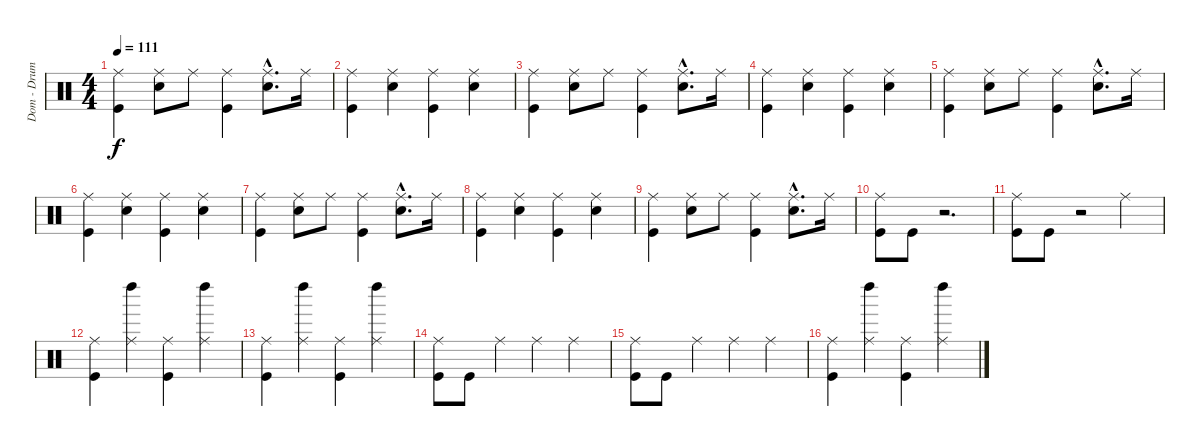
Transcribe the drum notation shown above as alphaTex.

\track ("Dom - Drums" "Dom - Drum") {instrument percussion}
\staff {score}
\articulation defaults
\ts (4 4)
\tempo 111
\clef neutral
\ks c
("Ride (middle)" "Kick (hit)").4{dy f} ("Ride (middle)" "Electric Snare (hit)").8 "Ride (middle)".8 ("Ride (middle)" "Kick (hit)").4 ("Ride (middle)"{hac} "Electric Snare (hit)"{hac}).8{d} "Ride (middle)".16 |
("Ride (middle)" "Kick (hit)").4 ("Ride (middle)" "Electric Snare (hit)").4 ("Ride (middle)" "Kick (hit)").4 ("Ride (middle)" "Electric Snare (hit)").4 |
("Ride (middle)" "Kick (hit)").4 ("Ride (middle)" "Electric Snare (hit)").8 "Ride (middle)".8 ("Ride (middle)" "Kick (hit)").4 ("Ride (middle)"{hac} "Electric Snare (hit)"{hac}).8{d} "Ride (middle)".16 |
("Ride (middle)" "Kick (hit)").4 ("Ride (middle)" "Electric Snare (hit)").4 ("Ride (middle)" "Kick (hit)").4 ("Ride (middle)" "Electric Snare (hit)").4 |
("Ride (middle)" "Kick (hit)").4 ("Ride (middle)" "Electric Snare (hit)").8 "Ride (middle)".8 ("Ride (middle)" "Kick (hit)").4 ("Ride (middle)"{hac} "Electric Snare (hit)"{hac}).8{d} "Ride (middle)".16 |
("Ride (middle)" "Kick (hit)").4 ("Ride (middle)" "Electric Snare (hit)").4 ("Ride (middle)" "Kick (hit)").4 ("Ride (middle)" "Electric Snare (hit)").4 |
("Ride (middle)" "Kick (hit)").4 ("Ride (middle)" "Electric Snare (hit)").8 "Ride (middle)".8 ("Ride (middle)" "Kick (hit)").4 ("Ride (middle)"{hac} "Electric Snare (hit)"{hac}).8{d} "Ride (middle)".16 |
("Ride (middle)" "Kick (hit)").4 ("Ride (middle)" "Electric Snare (hit)").4 ("Ride (middle)" "Kick (hit)").4 ("Ride (middle)" "Electric Snare (hit)").4 |
("Ride (middle)" "Kick (hit)").4 ("Ride (middle)" "Electric Snare (hit)").8 "Ride (middle)".8 ("Ride (middle)" "Kick (hit)").4 ("Ride (middle)"{hac} "Electric Snare (hit)"{hac}).8{d} "Ride (middle)".16 |
("Ride (middle)" "Kick (hit)").8 "Kick (hit)".8 r.2{d} |
("Ride (middle)" "Kick (hit)").8 "Kick (hit)".8 r.2 "Ride (middle)".4 |
("Ride (middle)" "Kick (hit)").4 ("Ride (middle)" "Left Maraca (hit)").4 ("Ride (middle)" "Kick (hit)").4 ("Ride (middle)" "Left Maraca (hit)").4 |
("Ride (middle)" "Kick (hit)").4 ("Ride (middle)" "Left Maraca (hit)").4 ("Ride (middle)" "Kick (hit)").4 ("Ride (middle)" "Left Maraca (hit)").4 |
("Ride (middle)" "Kick (hit)").8 "Kick (hit)".8 "Ride (middle)".4 "Ride (middle)".4 "Ride (middle)".4 |
("Ride (middle)" "Kick (hit)").8 "Kick (hit)".8 "Ride (middle)".4 "Ride (middle)".4 "Ride (middle)".4 |
("Ride (middle)" "Kick (hit)").4 ("Ride (middle)" "Left Maraca (hit)").4 ("Ride (middle)" "Kick (hit)").4 ("Ride (middle)" "Left Maraca (hit)").4
